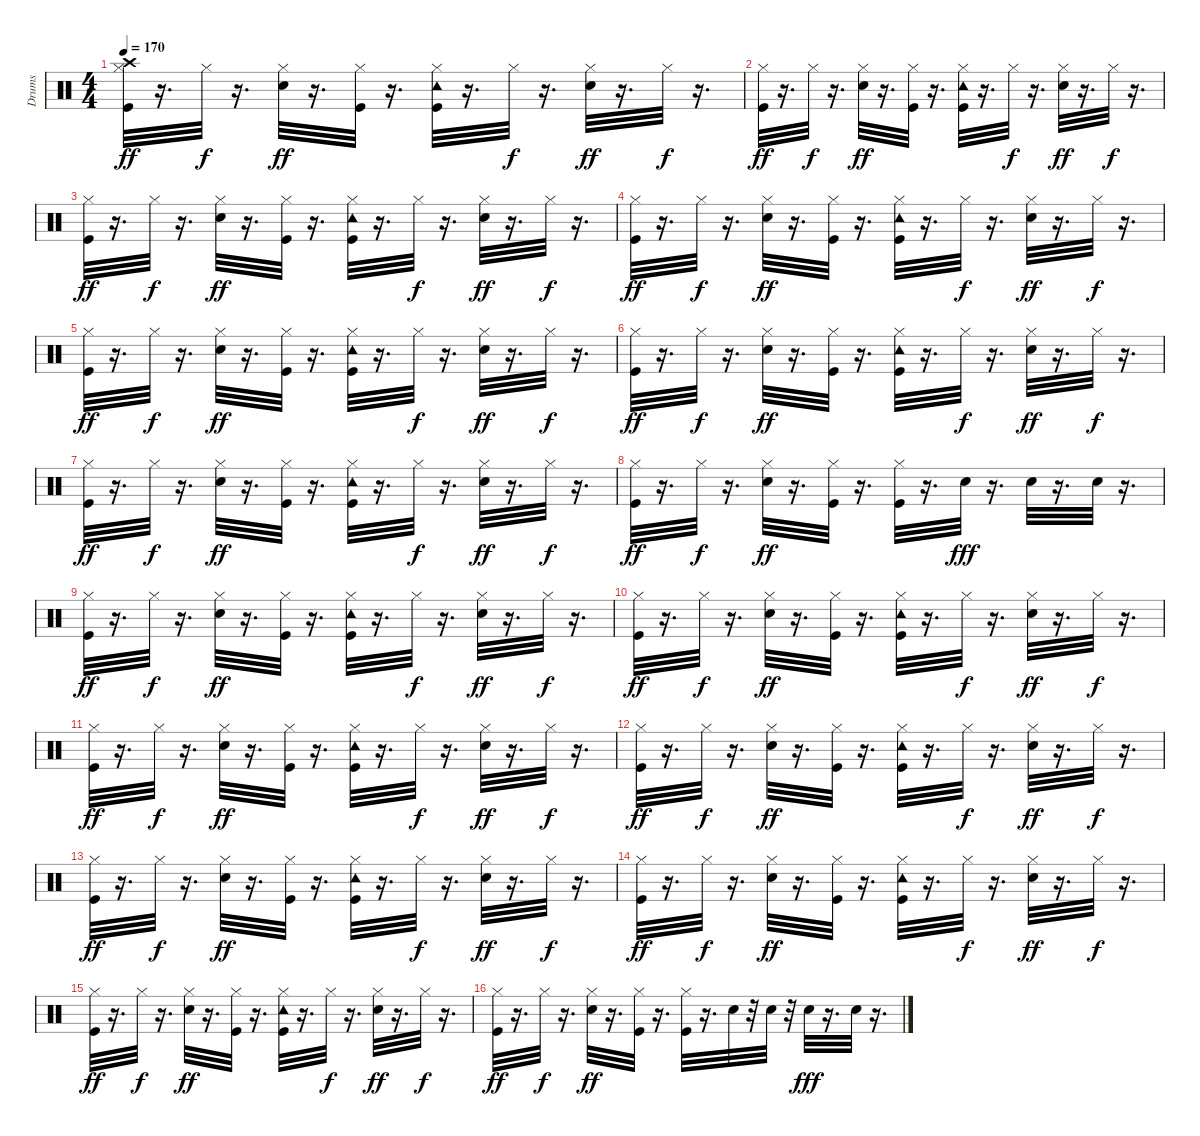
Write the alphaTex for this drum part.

\track ("Drums" "Drums") {instrument percussion}
\staff {score}
\articulation defaults
\ts (4 4)
\tempo 170
\clef neutral
\ks c
("Kick (hit)" "Crash high (hit)" "Hi-Hat (closed)").32{dy ff} r.16{d} "Hi-Hat (closed)".32{dy f} r.16{d} ("Snare (hit) 2" "Hi-Hat (closed)").32{dy ff} r.16{d} ("Hi-Hat (closed)" "Kick (hit)").32 r.16{d} ("Kick (hit)" "Tambourine (hit)" "Hi-Hat (closed)").32 r.16{d} "Hi-Hat (closed)".32{dy f} r.16{d} ("Snare (hit) 2" "Hi-Hat (closed)").32{dy ff} r.16{d} "Hi-Hat (closed)".32{dy f} r.16{d} |
("Kick (hit)" "Hi-Hat (closed)").32{dy ff} r.16{d} "Hi-Hat (closed)".32{dy f} r.16{d} ("Snare (hit) 2" "Hi-Hat (closed)").32{dy ff} r.16{d} ("Hi-Hat (closed)" "Kick (hit)").32 r.16{d} ("Kick (hit)" "Tambourine (hit)" "Hi-Hat (closed)").32 r.16{d} "Hi-Hat (closed)".32{dy f} r.16{d} ("Snare (hit) 2" "Hi-Hat (closed)").32{dy ff} r.16{d} "Hi-Hat (closed)".32{dy f} r.16{d} |
("Kick (hit)" "Hi-Hat (closed)").32{dy ff} r.16{d} "Hi-Hat (closed)".32{dy f} r.16{d} ("Snare (hit) 2" "Hi-Hat (closed)").32{dy ff} r.16{d} ("Hi-Hat (closed)" "Kick (hit)").32 r.16{d} ("Kick (hit)" "Tambourine (hit)" "Hi-Hat (closed)").32 r.16{d} "Hi-Hat (closed)".32{dy f} r.16{d} ("Snare (hit) 2" "Hi-Hat (closed)").32{dy ff} r.16{d} "Hi-Hat (closed)".32{dy f} r.16{d} |
("Kick (hit)" "Hi-Hat (closed)").32{dy ff} r.16{d} "Hi-Hat (closed)".32{dy f} r.16{d} ("Snare (hit) 2" "Hi-Hat (closed)").32{dy ff} r.16{d} ("Hi-Hat (closed)" "Kick (hit)").32 r.16{d} ("Kick (hit)" "Tambourine (hit)" "Hi-Hat (closed)").32 r.16{d} "Hi-Hat (closed)".32{dy f} r.16{d} ("Snare (hit) 2" "Hi-Hat (closed)").32{dy ff} r.16{d} "Hi-Hat (closed)".32{dy f} r.16{d} |
("Kick (hit)" "Hi-Hat (closed)").32{dy ff} r.16{d} "Hi-Hat (closed)".32{dy f} r.16{d} ("Snare (hit) 2" "Hi-Hat (closed)").32{dy ff} r.16{d} ("Hi-Hat (closed)" "Kick (hit)").32 r.16{d} ("Kick (hit)" "Tambourine (hit)" "Hi-Hat (closed)").32 r.16{d} "Hi-Hat (closed)".32{dy f} r.16{d} ("Snare (hit) 2" "Hi-Hat (closed)").32{dy ff} r.16{d} "Hi-Hat (closed)".32{dy f} r.16{d} |
("Kick (hit)" "Hi-Hat (closed)").32{dy ff} r.16{d} "Hi-Hat (closed)".32{dy f} r.16{d} ("Snare (hit) 2" "Hi-Hat (closed)").32{dy ff} r.16{d} ("Hi-Hat (closed)" "Kick (hit)").32 r.16{d} ("Kick (hit)" "Tambourine (hit)" "Hi-Hat (closed)").32 r.16{d} "Hi-Hat (closed)".32{dy f} r.16{d} ("Snare (hit) 2" "Hi-Hat (closed)").32{dy ff} r.16{d} "Hi-Hat (closed)".32{dy f} r.16{d} |
("Kick (hit)" "Hi-Hat (closed)").32{dy ff} r.16{d} "Hi-Hat (closed)".32{dy f} r.16{d} ("Snare (hit) 2" "Hi-Hat (closed)").32{dy ff} r.16{d} ("Hi-Hat (closed)" "Kick (hit)").32 r.16{d} ("Kick (hit)" "Tambourine (hit)" "Hi-Hat (closed)").32 r.16{d} "Hi-Hat (closed)".32{dy f} r.16{d} ("Snare (hit) 2" "Hi-Hat (closed)").32{dy ff} r.16{d} "Hi-Hat (closed)".32{dy f} r.16{d} |
("Kick (hit)" "Hi-Hat (closed)").32{dy ff} r.16{d} "Hi-Hat (closed)".32{dy f} r.16{d} ("Snare (hit) 2" "Hi-Hat (closed)").32{dy ff} r.16{d} ("Hi-Hat (closed)" "Kick (hit)").32 r.16{d} ("Kick (hit)" "Hi-Hat (closed)").32 r.16{d} "Snare (hit) 2".32{dy fff} r.16{d} "Snare (hit) 2".32 r.16{d} "Snare (hit) 2".32 r.16{d} |
("Kick (hit)" "Hi-Hat (closed)").32{dy ff} r.16{d} "Hi-Hat (closed)".32{dy f} r.16{d} ("Snare (hit) 2" "Hi-Hat (closed)").32{dy ff} r.16{d} ("Hi-Hat (closed)" "Kick (hit)").32 r.16{d} ("Kick (hit)" "Tambourine (hit)" "Hi-Hat (closed)").32 r.16{d} "Hi-Hat (closed)".32{dy f} r.16{d} ("Snare (hit) 2" "Hi-Hat (closed)").32{dy ff} r.16{d} "Hi-Hat (closed)".32{dy f} r.16{d} |
("Kick (hit)" "Hi-Hat (closed)").32{dy ff} r.16{d} "Hi-Hat (closed)".32{dy f} r.16{d} ("Snare (hit) 2" "Hi-Hat (closed)").32{dy ff} r.16{d} ("Hi-Hat (closed)" "Kick (hit)").32 r.16{d} ("Kick (hit)" "Tambourine (hit)" "Hi-Hat (closed)").32 r.16{d} "Hi-Hat (closed)".32{dy f} r.16{d} ("Snare (hit) 2" "Hi-Hat (closed)").32{dy ff} r.16{d} "Hi-Hat (closed)".32{dy f} r.16{d} |
("Kick (hit)" "Hi-Hat (closed)").32{dy ff} r.16{d} "Hi-Hat (closed)".32{dy f} r.16{d} ("Snare (hit) 2" "Hi-Hat (closed)").32{dy ff} r.16{d} ("Hi-Hat (closed)" "Kick (hit)").32 r.16{d} ("Kick (hit)" "Tambourine (hit)" "Hi-Hat (closed)").32 r.16{d} "Hi-Hat (closed)".32{dy f} r.16{d} ("Snare (hit) 2" "Hi-Hat (closed)").32{dy ff} r.16{d} "Hi-Hat (closed)".32{dy f} r.16{d} |
("Kick (hit)" "Hi-Hat (closed)").32{dy ff} r.16{d} "Hi-Hat (closed)".32{dy f} r.16{d} ("Snare (hit) 2" "Hi-Hat (closed)").32{dy ff} r.16{d} ("Hi-Hat (closed)" "Kick (hit)").32 r.16{d} ("Kick (hit)" "Tambourine (hit)" "Hi-Hat (closed)").32 r.16{d} "Hi-Hat (closed)".32{dy f} r.16{d} ("Snare (hit) 2" "Hi-Hat (closed)").32{dy ff} r.16{d} "Hi-Hat (closed)".32{dy f} r.16{d} |
("Kick (hit)" "Hi-Hat (closed)").32{dy ff} r.16{d} "Hi-Hat (closed)".32{dy f} r.16{d} ("Snare (hit) 2" "Hi-Hat (closed)").32{dy ff} r.16{d} ("Hi-Hat (closed)" "Kick (hit)").32 r.16{d} ("Kick (hit)" "Tambourine (hit)" "Hi-Hat (closed)").32 r.16{d} "Hi-Hat (closed)".32{dy f} r.16{d} ("Snare (hit) 2" "Hi-Hat (closed)").32{dy ff} r.16{d} "Hi-Hat (closed)".32{dy f} r.16{d} |
("Kick (hit)" "Hi-Hat (closed)").32{dy ff} r.16{d} "Hi-Hat (closed)".32{dy f} r.16{d} ("Snare (hit) 2" "Hi-Hat (closed)").32{dy ff} r.16{d} ("Hi-Hat (closed)" "Kick (hit)").32 r.16{d} ("Kick (hit)" "Tambourine (hit)" "Hi-Hat (closed)").32 r.16{d} "Hi-Hat (closed)".32{dy f} r.16{d} ("Snare (hit) 2" "Hi-Hat (closed)").32{dy ff} r.16{d} "Hi-Hat (closed)".32{dy f} r.16{d} |
("Kick (hit)" "Hi-Hat (closed)").32{dy ff} r.16{d} "Hi-Hat (closed)".32{dy f} r.16{d} ("Snare (hit) 2" "Hi-Hat (closed)").32{dy ff} r.16{d} ("Hi-Hat (closed)" "Kick (hit)").32 r.16{d} ("Kick (hit)" "Tambourine (hit)" "Hi-Hat (closed)").32 r.16{d} "Hi-Hat (closed)".32{dy f} r.16{d} ("Snare (hit) 2" "Hi-Hat (closed)").32{dy ff} r.16{d} "Hi-Hat (closed)".32{dy f} r.16{d} |
("Kick (hit)" "Hi-Hat (closed)").32{dy ff} r.16{d} "Hi-Hat (closed)".32{dy f} r.16{d} ("Snare (hit) 2" "Hi-Hat (closed)").32{dy ff} r.16{d} ("Hi-Hat (closed)" "Kick (hit)").32 r.16{d} ("Kick (hit)" "Hi-Hat (closed)").32 r.16{d} "Snare (hit) 2".32 r.32 "Snare (hit) 2".32 r.32 "Snare (hit) 2".32{dy fff} r.16{d} "Snare (hit) 2".32 r.16{d}
